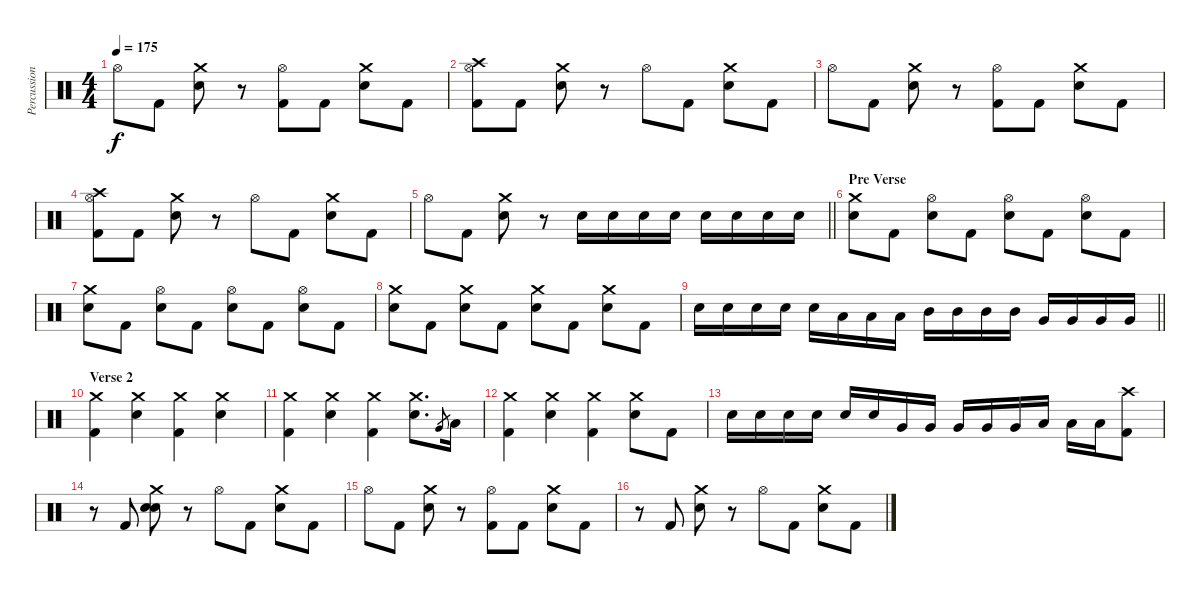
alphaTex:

\track ("Percussion" "Percussion") {instrument percussion}
\staff {score}
\articulation defaults
\ts (4 4)
\tempo 175
\clef neutral
\ks c "Hi-Hat (open)".8{dy f} "Kick (hit) 2".8
("Crash medium (hit)" "Electric Snare (hit)").8 r.8 ("Hi-Hat (open)" "Kick (hit) 2").8 "Kick (hit) 2".8 ("Crash medium (hit)" "Electric Snare (hit)").8 "Kick (hit) 2".8 |
("Hi-Hat (open)" "Crash high (hit)" "Kick (hit) 2").8 "Kick (hit) 2".8 ("Crash medium (hit)" "Electric Snare (hit)").8 r.8 "Hi-Hat (open)".8 "Kick (hit) 2".8 ("Crash medium (hit)" "Electric Snare (hit)").8 "Kick (hit) 2".8 |
"Hi-Hat (open)".8 "Kick (hit) 2".8 ("Crash medium (hit)" "Electric Snare (hit)").8 r.8 ("Hi-Hat (open)" "Kick (hit) 2").8 "Kick (hit) 2".8 ("Crash medium (hit)" "Electric Snare (hit)").8 "Kick (hit) 2".8 |
("Hi-Hat (open)" "Crash high (hit)" "Kick (hit) 2").8 "Kick (hit) 2".8 ("Crash medium (hit)" "Electric Snare (hit)").8 r.8 "Hi-Hat (open)".8 "Kick (hit) 2".8 ("Crash medium (hit)" "Electric Snare (hit)").8 "Kick (hit) 2".8 |
\barLineRight lightlight "Hi-Hat (open)".8 "Kick (hit) 2".8
("Crash medium (hit)" "Electric Snare (hit)").8 r.8 "Electric Snare (hit)".16 "Electric Snare (hit)".16 "Electric Snare (hit)".16 "Electric Snare (hit)".16 "Electric Snare (hit)".16 "Electric Snare (hit)".16 "Electric Snare (hit)".16 "Electric Snare (hit)".16 |
\section ("" "Pre Verse")
("Crash medium (hit)" "Electric Snare (hit)").8 "Kick (hit) 2".8 ("Hi-Hat (open)" "Electric Snare (hit)").8 "Kick (hit) 2".8 ("Hi-Hat (open)" "Electric Snare (hit)").8 "Kick (hit) 2".8 ("Hi-Hat (open)" "Electric Snare (hit)").8 "Kick (hit) 2".8 |
("Crash medium (hit)" "Electric Snare (hit)").8 "Kick (hit) 2".8 ("Hi-Hat (open)" "Electric Snare (hit)").8 "Kick (hit) 2".8 ("Hi-Hat (open)" "Electric Snare (hit)").8 "Kick (hit) 2".8 ("Hi-Hat (open)" "Electric Snare (hit)").8 "Kick (hit) 2".8 |
("Crash medium (hit)" "Electric Snare (hit)").8 "Kick (hit) 2".8 ("Crash medium (hit)" "Electric Snare (hit)").8 "Kick (hit) 2".8 ("Crash medium (hit)" "Electric Snare (hit)").8 "Kick (hit) 2".8 ("Crash medium (hit)" "Electric Snare (hit)").8 "Kick (hit) 2".8 |
\barLineRight lightlight "Electric Snare (hit)".16 "Electric Snare (hit)".16 "Electric Snare (hit)".16 "Electric Snare (hit)".16 "Electric Snare (hit)".16 "Low Tom (hit)".16 "Low Tom (hit)".16 "Low Tom (hit)".16 "Mid Tom (hit)".16 "Mid Tom (hit)".16 "Mid Tom (hit)".16 "Mid Tom (hit)".16 "Very Low Tom (hit)".16 "Very Low Tom (hit)".16 "Very Low Tom (hit)".16 "Very Low Tom (hit)".16
|
\section ("" "Verse 2")
("Crash medium (hit)" "Kick (hit) 2").4 ("Crash medium (hit)" "Electric Snare (hit)").4 ("Crash medium (hit)" "Kick (hit) 2").4 ("Crash medium (hit)" "Electric Snare (hit)").4 |
("Crash medium (hit)" "Kick (hit) 2").4 ("Crash medium (hit)" "Electric Snare (hit)").4 ("Crash medium (hit)" "Kick (hit) 2").4 ("Crash medium (hit)" "Electric Snare (hit)").8{d} "Very Low Tom (hit)"{h}.8{gr} "Low Floor Tom (hit)".16 |
("Crash medium (hit)" "Kick (hit) 2").4 ("Crash medium (hit)" "Electric Snare (hit)").4 ("Crash medium (hit)" "Kick (hit) 2").4 ("Crash medium (hit)" "Electric Snare (hit)").8 "Kick (hit) 2".8 |
"Electric Snare (hit)".16 "Electric Snare (hit)".16 "Electric Snare (hit)".16 "Electric Snare (hit)".16 "Electric Snare (hit)".16 "Electric Snare (hit)".16 "Very Low Tom (hit)".16 "Very Low Tom (hit)".16 "Very Low Tom (hit)".16 "Very Low Tom (hit)".16 "Very Low Tom (hit)".16 "Low Floor Tom (hit)".16 "Low Floor Tom (hit)".16 "Low Floor Tom (hit)".16 ("Crash high (hit)" "Kick (hit) 2").8 |
r.8 "Kick (hit) 2".8 ("Crash medium (hit)" "Snare (hit) 2" "Electric Snare (hit)").8 r.8 "Hi-Hat (open)".8 "Kick (hit) 2".8 ("Crash medium (hit)" "Electric Snare (hit)").8 "Kick (hit) 2".8 |
"Hi-Hat (open)".8 "Kick (hit) 2".8 ("Crash medium (hit)" "Electric Snare (hit)").8 r.8 ("Hi-Hat (open)" "Kick (hit) 2").8 "Kick (hit) 2".8 ("Crash medium (hit)" "Electric Snare (hit)").8 "Kick (hit) 2".8 |
r.8 "Kick (hit) 2".8 ("Crash medium (hit)" "Electric Snare (hit)").8 r.8 "Hi-Hat (open)".8 "Kick (hit) 2".8 ("Crash medium (hit)" "Electric Snare (hit)").8 "Kick (hit) 2".8
